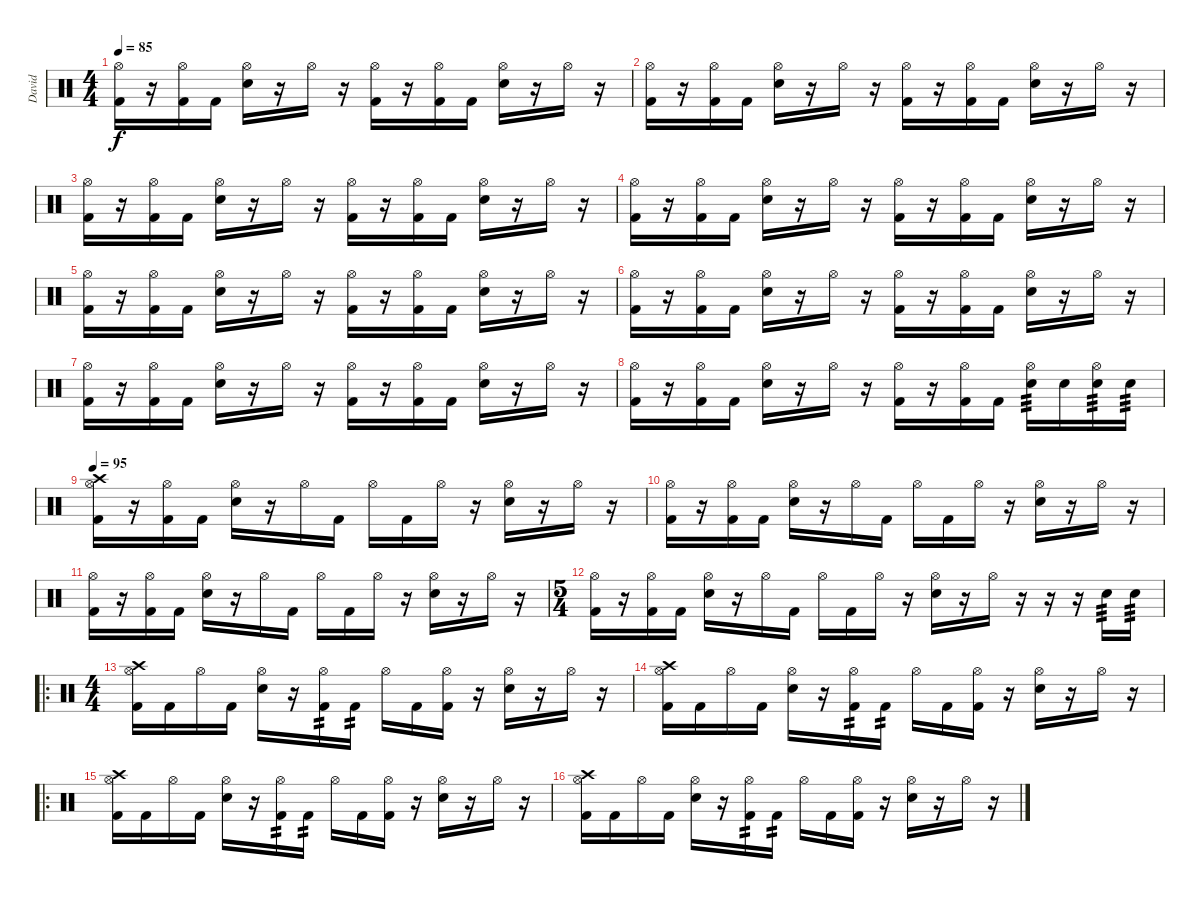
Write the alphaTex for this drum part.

\track ("David" "David") {instrument percussion}
\staff {score}
\articulation defaults
\ts (4 4)
\tempo 85
\clef neutral
\ks c
("Hi-Hat (open)" "Kick (hit) 2").16{dy f} r.16 ("Hi-Hat (open)" "Kick (hit) 2").16 "Kick (hit) 2".16 ("Hi-Hat (open)" "Snare (hit) 2").16 r.16 "Hi-Hat (open)".16 r.16 ("Hi-Hat (open)" "Kick (hit) 2").16 r.16 ("Hi-Hat (open)" "Kick (hit) 2").16 "Kick (hit) 2".16 ("Hi-Hat (open)" "Snare (hit) 2").16 r.16 "Hi-Hat (open)".16 r.16 |
("Hi-Hat (open)" "Kick (hit) 2").16 r.16 ("Hi-Hat (open)" "Kick (hit) 2").16 "Kick (hit) 2".16 ("Hi-Hat (open)" "Snare (hit) 2").16 r.16 "Hi-Hat (open)".16 r.16 ("Hi-Hat (open)" "Kick (hit) 2").16 r.16 ("Hi-Hat (open)" "Kick (hit) 2").16 "Kick (hit) 2".16 ("Hi-Hat (open)" "Snare (hit) 2").16 r.16 "Hi-Hat (open)".16 r.16 |
("Hi-Hat (open)" "Kick (hit) 2").16 r.16 ("Hi-Hat (open)" "Kick (hit) 2").16 "Kick (hit) 2".16 ("Hi-Hat (open)" "Snare (hit) 2").16 r.16 "Hi-Hat (open)".16 r.16 ("Hi-Hat (open)" "Kick (hit) 2").16 r.16 ("Hi-Hat (open)" "Kick (hit) 2").16 "Kick (hit) 2".16 ("Hi-Hat (open)" "Snare (hit) 2").16 r.16 "Hi-Hat (open)".16 r.16 |
("Hi-Hat (open)" "Kick (hit) 2").16 r.16 ("Hi-Hat (open)" "Kick (hit) 2").16 "Kick (hit) 2".16 ("Hi-Hat (open)" "Snare (hit) 2").16 r.16 "Hi-Hat (open)".16 r.16 ("Hi-Hat (open)" "Kick (hit) 2").16 r.16 ("Hi-Hat (open)" "Kick (hit) 2").16 "Kick (hit) 2".16 ("Hi-Hat (open)" "Snare (hit) 2").16 r.16 "Hi-Hat (open)".16 r.16 |
("Hi-Hat (open)" "Kick (hit) 2").16 r.16 ("Hi-Hat (open)" "Kick (hit) 2").16 "Kick (hit) 2".16 ("Hi-Hat (open)" "Snare (hit) 2").16 r.16 "Hi-Hat (open)".16 r.16 ("Hi-Hat (open)" "Kick (hit) 2").16 r.16 ("Hi-Hat (open)" "Kick (hit) 2").16 "Kick (hit) 2".16 ("Hi-Hat (open)" "Snare (hit) 2").16 r.16 "Hi-Hat (open)".16 r.16 |
("Hi-Hat (open)" "Kick (hit) 2").16 r.16 ("Hi-Hat (open)" "Kick (hit) 2").16 "Kick (hit) 2".16 ("Hi-Hat (open)" "Snare (hit) 2").16 r.16 "Hi-Hat (open)".16 r.16 ("Hi-Hat (open)" "Kick (hit) 2").16 r.16 ("Hi-Hat (open)" "Kick (hit) 2").16 "Kick (hit) 2".16 ("Hi-Hat (open)" "Snare (hit) 2").16 r.16 "Hi-Hat (open)".16 r.16 |
("Hi-Hat (open)" "Kick (hit) 2").16 r.16 ("Hi-Hat (open)" "Kick (hit) 2").16 "Kick (hit) 2".16 ("Hi-Hat (open)" "Snare (hit) 2").16 r.16 "Hi-Hat (open)".16 r.16 ("Hi-Hat (open)" "Kick (hit) 2").16 r.16 ("Hi-Hat (open)" "Kick (hit) 2").16 "Kick (hit) 2".16 ("Hi-Hat (open)" "Snare (hit) 2").16 r.16 "Hi-Hat (open)".16 r.16 |
("Hi-Hat (open)" "Kick (hit) 2").16 r.16 ("Hi-Hat (open)" "Kick (hit) 2").16 "Kick (hit) 2".16 ("Hi-Hat (open)" "Snare (hit) 2").16 r.16 "Hi-Hat (open)".16 r.16 ("Hi-Hat (open)" "Kick (hit) 2").16 r.16 ("Hi-Hat (open)" "Kick (hit) 2").16 "Kick (hit) 2".16 ("Hi-Hat (open)" "Snare (hit) 2").16{tp 3} "Snare (hit) 2".16 ("Hi-Hat (open)" "Snare (hit) 2").16{tp 3} "Snare (hit) 2".16{tp 3} |
\tempo 95
("Hi-Hat (open)" "Kick (hit) 2" "Crash high (hit)").16 r.16 ("Hi-Hat (open)" "Kick (hit) 2").16 "Kick (hit) 2".16 ("Hi-Hat (open)" "Snare (hit) 2").16 r.16 "Hi-Hat (open)".16 "Kick (hit) 2".16 "Hi-Hat (open)".16 "Kick (hit) 2".16 "Hi-Hat (open)".16 r.16 ("Hi-Hat (open)" "Snare (hit) 2").16 r.16 "Hi-Hat (open)".16 r.16 |
("Hi-Hat (open)" "Kick (hit) 2").16 r.16 ("Hi-Hat (open)" "Kick (hit) 2").16 "Kick (hit) 2".16 ("Hi-Hat (open)" "Snare (hit) 2").16 r.16 "Hi-Hat (open)".16 "Kick (hit) 2".16 "Hi-Hat (open)".16 "Kick (hit) 2".16 "Hi-Hat (open)".16 r.16 ("Hi-Hat (open)" "Snare (hit) 2").16 r.16 "Hi-Hat (open)".16 r.16 |
("Hi-Hat (open)" "Kick (hit) 2").16 r.16 ("Hi-Hat (open)" "Kick (hit) 2").16 "Kick (hit) 2".16 ("Hi-Hat (open)" "Snare (hit) 2").16 r.16 "Hi-Hat (open)".16 "Kick (hit) 2".16 "Hi-Hat (open)".16 "Kick (hit) 2".16 "Hi-Hat (open)".16 r.16 ("Hi-Hat (open)" "Snare (hit) 2").16 r.16 "Hi-Hat (open)".16 r.16 |
\ts (5 4)
("Hi-Hat (open)" "Kick (hit) 2").16 r.16 ("Hi-Hat (open)" "Kick (hit) 2").16 "Kick (hit) 2".16 ("Hi-Hat (open)" "Snare (hit) 2").16 r.16 "Hi-Hat (open)".16 "Kick (hit) 2".16 "Hi-Hat (open)".16 "Kick (hit) 2".16 "Hi-Hat (open)".16 r.16 ("Hi-Hat (open)" "Snare (hit) 2").16 r.16 "Hi-Hat (open)".16 r.16 r.16 r.16 "Snare (hit) 2".16{tp 3} "Snare (hit) 2".16{tp 3} |
\ro
\ts (4 4)
("Hi-Hat (open)" "Crash high (hit)" "Kick (hit) 2").16 "Kick (hit) 2".16 "Hi-Hat (open)".16 "Kick (hit) 2".16 ("Hi-Hat (open)" "Snare (hit) 2").16 r.16 ("Hi-Hat (open)" "Kick (hit) 2").16{tp 2} "Kick (hit) 2".16{tp 2} "Hi-Hat (open)".16 "Kick (hit) 2".16 ("Hi-Hat (open)" "Kick (hit) 2").16 r.16 ("Hi-Hat (open)" "Snare (hit) 2").16 r.16 "Hi-Hat (open)".16 r.16 |
("Hi-Hat (open)" "Crash high (hit)" "Kick (hit) 2").16 "Kick (hit) 2".16 "Hi-Hat (open)".16 "Kick (hit) 2".16 ("Hi-Hat (open)" "Snare (hit) 2").16 r.16 ("Hi-Hat (open)" "Kick (hit) 2").16{tp 2} "Kick (hit) 2".16{tp 2} "Hi-Hat (open)".16 "Kick (hit) 2".16 ("Hi-Hat (open)" "Kick (hit) 2").16 r.16 ("Hi-Hat (open)" "Snare (hit) 2").16 r.16 "Hi-Hat (open)".16 r.16 |
\ro
("Hi-Hat (open)" "Crash high (hit)" "Kick (hit) 2").16 "Kick (hit) 2".16 "Hi-Hat (open)".16 "Kick (hit) 2".16 ("Hi-Hat (open)" "Snare (hit) 2").16 r.16 ("Hi-Hat (open)" "Kick (hit) 2").16{tp 2} "Kick (hit) 2".16{tp 2} "Hi-Hat (open)".16 "Kick (hit) 2".16 ("Hi-Hat (open)" "Kick (hit) 2").16 r.16 ("Hi-Hat (open)" "Snare (hit) 2").16 r.16 "Hi-Hat (open)".16 r.16 |
("Hi-Hat (open)" "Crash high (hit)" "Kick (hit) 2").16 "Kick (hit) 2".16 "Hi-Hat (open)".16 "Kick (hit) 2".16 ("Hi-Hat (open)" "Snare (hit) 2").16 r.16 ("Hi-Hat (open)" "Kick (hit) 2").16{tp 2} "Kick (hit) 2".16{tp 2} "Hi-Hat (open)".16 "Kick (hit) 2".16 ("Hi-Hat (open)" "Kick (hit) 2").16 r.16 ("Hi-Hat (open)" "Snare (hit) 2").16 r.16 "Hi-Hat (open)".16 r.16
